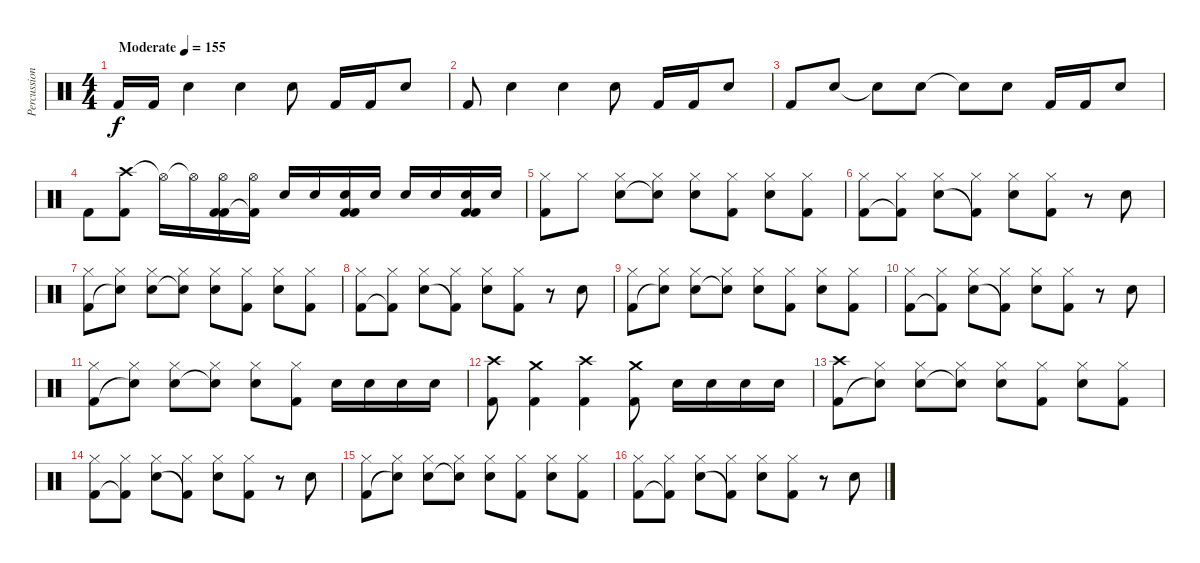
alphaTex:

\track ("Percussion" "Percussion") {instrument percussion}
\staff {score}
\articulation defaults
\ts (4 4)
\tempo (155 "Moderate")
\clef neutral
\ks c "Kick (hit) 2".16{dy f} "Kick (hit) 2".16 "Electric Snare (hit)".4 "Electric Snare (hit)".4 "Electric Snare (hit)".8 "Kick (hit) 2".16 "Kick (hit) 2".16 "Electric Snare (hit)".8
|
"Kick (hit) 2".8 "Electric Snare (hit)".4 "Electric Snare (hit)".4 "Electric Snare (hit)".8 "Kick (hit) 2".16 "Kick (hit) 2".16 "Electric Snare (hit)".8 |
"Kick (hit) 2".8 "Electric Snare (hit)".8 "Snare (hit)"{t}.8 "Electric Snare (hit)".8 "Snare (hit)"{t}.8 "Electric Snare (hit)".8 "Kick (hit) 2".16 "Kick (hit) 2".16 "Electric Snare (hit)".8 |
"Kick (hit) 2".8 ("Crash high (hit)" "Kick (hit) 2").8 "Hi-Hat (open)"{t}.16 "Hi-Hat (open)"{t}.16 ("Hi-Hat (open)" "Kick (hit) 2" "Kick (hit) 2").16 ("Hi-Hat (open)" "Kick (hit) 2"{t}).16 "Electric Snare (hit)".16 "Electric Snare (hit)".16 ("Kick (hit) 2" "Kick (hit) 2" "Electric Snare (hit)").16 "Electric Snare (hit)".16 "Electric Snare (hit)".16 "Electric Snare (hit)".16 ("Kick (hit) 2" "Kick (hit) 2" "Electric Snare (hit)").16 "Electric Snare (hit)".16 |
("Kick (hit) 2" "Hi-Hat (closed)").8 "Hi-Hat (closed)".8 ("Electric Snare (hit)" "Hi-Hat (closed)").8 ("Electric Snare (hit)"{t} "Hi-Hat (closed)").8 ("Electric Snare (hit)" "Hi-Hat (closed)").8 ("Kick (hit) 2" "Hi-Hat (closed)").8 ("Electric Snare (hit)" "Hi-Hat (closed)").8 ("Kick (hit) 2" "Hi-Hat (closed)").8 |
("Kick (hit) 2" "Hi-Hat (closed)").8 ("Kick (hit) 2"{t} "Hi-Hat (closed)").8 ("Electric Snare (hit)" "Hi-Hat (closed)").8 ("Kick (hit) 2"{t} "Hi-Hat (closed)").8 ("Electric Snare (hit)" "Hi-Hat (closed)").8 ("Kick (hit) 2" "Hi-Hat (closed)").8 r.8 "Electric Snare (hit)".8 |
("Kick (hit) 2" "Hi-Hat (closed)").8 ("Electric Snare (hit)"{t} "Hi-Hat (closed)").8 ("Electric Snare (hit)" "Hi-Hat (closed)").8 ("Electric Snare (hit)"{t} "Hi-Hat (closed)").8 ("Electric Snare (hit)" "Hi-Hat (closed)").8 ("Kick (hit) 2" "Hi-Hat (closed)").8 ("Electric Snare (hit)" "Hi-Hat (closed)").8 ("Kick (hit) 2" "Hi-Hat (closed)").8 |
("Kick (hit) 2" "Hi-Hat (closed)").8 ("Kick (hit) 2"{t} "Hi-Hat (closed)").8 ("Electric Snare (hit)" "Hi-Hat (closed)").8 ("Kick (hit) 2"{t} "Hi-Hat (closed)").8 ("Electric Snare (hit)" "Hi-Hat (closed)").8 ("Kick (hit) 2" "Hi-Hat (closed)").8 r.8 "Electric Snare (hit)".8 |
("Kick (hit) 2" "Hi-Hat (closed)").8 ("Electric Snare (hit)"{t} "Hi-Hat (closed)").8 ("Electric Snare (hit)" "Hi-Hat (closed)").8 ("Electric Snare (hit)"{t} "Hi-Hat (closed)").8 ("Electric Snare (hit)" "Hi-Hat (closed)").8 ("Kick (hit) 2" "Hi-Hat (closed)").8 ("Electric Snare (hit)" "Hi-Hat (closed)").8 ("Kick (hit) 2" "Hi-Hat (closed)").8 |
("Kick (hit) 2" "Hi-Hat (closed)").8 ("Kick (hit) 2"{t} "Hi-Hat (closed)").8 ("Electric Snare (hit)" "Hi-Hat (closed)").8 ("Kick (hit) 2"{t} "Hi-Hat (closed)").8 ("Electric Snare (hit)" "Hi-Hat (closed)").8 ("Kick (hit) 2" "Hi-Hat (closed)").8 r.8 "Electric Snare (hit)".8 |
("Kick (hit) 2" "Hi-Hat (closed)").8 ("Electric Snare (hit)"{t} "Hi-Hat (closed)").8 ("Electric Snare (hit)" "Hi-Hat (closed)").8 ("Electric Snare (hit)"{t} "Hi-Hat (closed)").8 ("Electric Snare (hit)" "Hi-Hat (closed)").8 ("Kick (hit) 2" "Hi-Hat (closed)").8 "Electric Snare (hit)".16 "Electric Snare (hit)".16 "Electric Snare (hit)".16 "Electric Snare (hit)".16 |
("Crash high (hit)" "Kick (hit) 2").8 ("Crash medium (hit)" "Kick (hit) 2").4 ("Crash high (hit)" "Kick (hit) 2").4 ("Crash medium (hit)" "Kick (hit) 2").8 "Electric Snare (hit)".16 "Electric Snare (hit)".16 "Electric Snare (hit)".16 "Electric Snare (hit)".16 |
("Kick (hit) 2" "Crash high (hit)").8 ("Electric Snare (hit)"{t} "Hi-Hat (closed)").8 ("Electric Snare (hit)" "Hi-Hat (closed)").8 ("Electric Snare (hit)"{t} "Hi-Hat (closed)").8 ("Electric Snare (hit)" "Hi-Hat (closed)").8 ("Kick (hit) 2" "Hi-Hat (closed)").8 ("Electric Snare (hit)" "Hi-Hat (closed)").8 ("Kick (hit) 2" "Hi-Hat (closed)").8 |
("Kick (hit) 2" "Hi-Hat (closed)").8 ("Kick (hit) 2"{t} "Hi-Hat (closed)").8 ("Electric Snare (hit)" "Hi-Hat (closed)").8 ("Kick (hit) 2"{t} "Hi-Hat (closed)").8 ("Electric Snare (hit)" "Hi-Hat (closed)").8 ("Kick (hit) 2" "Hi-Hat (closed)").8 r.8 "Electric Snare (hit)".8 |
("Kick (hit) 2" "Hi-Hat (closed)").8 ("Electric Snare (hit)"{t} "Hi-Hat (closed)").8 ("Electric Snare (hit)" "Hi-Hat (closed)").8 ("Electric Snare (hit)"{t} "Hi-Hat (closed)").8 ("Electric Snare (hit)" "Hi-Hat (closed)").8 ("Kick (hit) 2" "Hi-Hat (closed)").8 ("Electric Snare (hit)" "Hi-Hat (closed)").8 ("Kick (hit) 2" "Hi-Hat (closed)").8 |
("Kick (hit) 2" "Hi-Hat (closed)").8 ("Kick (hit) 2"{t} "Hi-Hat (closed)").8 ("Electric Snare (hit)" "Hi-Hat (closed)").8 ("Kick (hit) 2"{t} "Hi-Hat (closed)").8 ("Electric Snare (hit)" "Hi-Hat (closed)").8 ("Kick (hit) 2" "Hi-Hat (closed)").8 r.8 "Electric Snare (hit)".8
